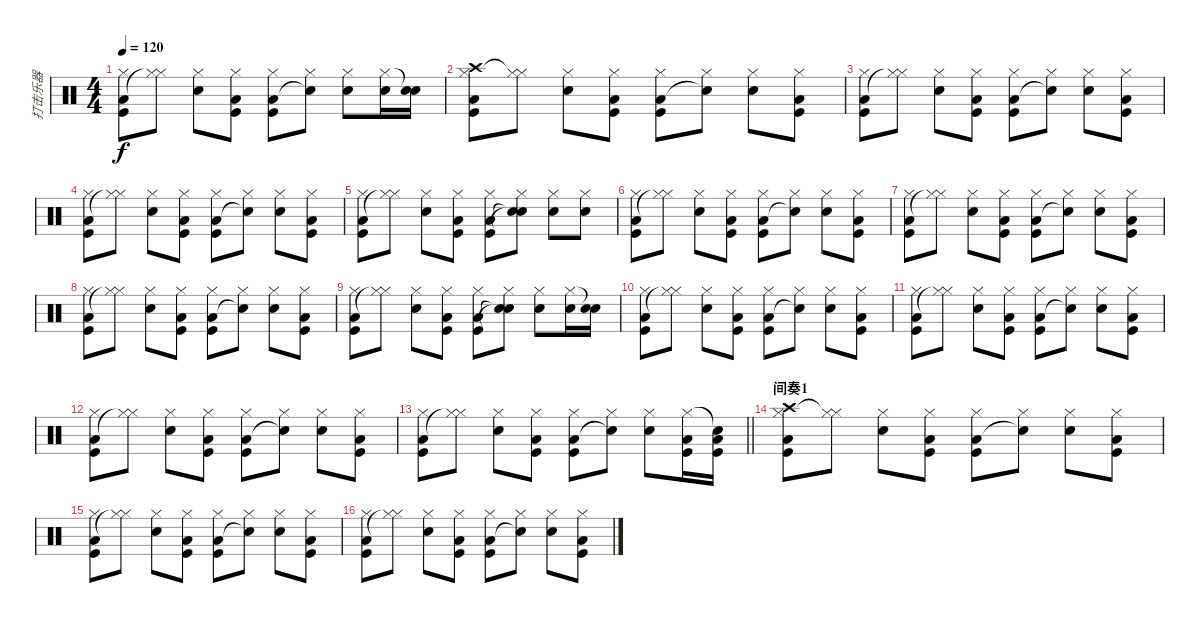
\track ("打击乐器" "打击乐器") {instrument percussion}
\staff {score}
\articulation defaults
\ts (4 4)
\tempo 120
\clef neutral
\ks c
("Hi-Hat (closed)" "Low Floor Tom (hit)" "Kick (hit)").8{dy f} ("Hi-Hat (closed)" "Hi-Hat (closed)"{t}).8 ("Hi-Hat (closed)" "Electric Snare (hit)").8 ("Hi-Hat (closed)" "Low Floor Tom (hit)" "Kick (hit)").8 ("Hi-Hat (closed)" "Low Floor Tom (hit)" "Kick (hit)").8 ("Hi-Hat (closed)" "Snare (hit)"{t}).8 ("Hi-Hat (closed)" "Electric Snare (hit)").8 ("Hi-Hat (closed)" "Electric Snare (hit)").16 ("Snare (hit)"{t} "Electric Snare (hit)").16 |
("Crash high (hit)" "Hi-Hat (closed)" "Low Floor Tom (hit)" "Kick (hit)").8 ("Hi-Hat (closed)" "Hi-Hat (closed)"{t}).8 ("Hi-Hat (closed)" "Electric Snare (hit)").8 ("Hi-Hat (closed)" "Low Floor Tom (hit)" "Kick (hit)").8 ("Hi-Hat (closed)" "Low Floor Tom (hit)" "Kick (hit)").8 ("Hi-Hat (closed)" "Snare (hit)"{t}).8 ("Hi-Hat (closed)" "Electric Snare (hit)").8 ("Hi-Hat (closed)" "Low Floor Tom (hit)" "Kick (hit)").8 |
("Hi-Hat (closed)" "Low Floor Tom (hit)" "Kick (hit)").8 ("Hi-Hat (closed)" "Hi-Hat (closed)"{t}).8 ("Hi-Hat (closed)" "Electric Snare (hit)").8 ("Hi-Hat (closed)" "Low Floor Tom (hit)" "Kick (hit)").8 ("Hi-Hat (closed)" "Low Floor Tom (hit)" "Kick (hit)").8 ("Hi-Hat (closed)" "Snare (hit)"{t}).8 ("Hi-Hat (closed)" "Electric Snare (hit)").8 ("Hi-Hat (closed)" "Low Floor Tom (hit)" "Kick (hit)").8 |
("Hi-Hat (closed)" "Low Floor Tom (hit)" "Kick (hit)").8 ("Hi-Hat (closed)" "Hi-Hat (closed)"{t}).8 ("Hi-Hat (closed)" "Electric Snare (hit)").8 ("Hi-Hat (closed)" "Low Floor Tom (hit)" "Kick (hit)").8 ("Hi-Hat (closed)" "Low Floor Tom (hit)" "Kick (hit)").8 ("Hi-Hat (closed)" "Snare (hit)"{t}).8 ("Hi-Hat (closed)" "Electric Snare (hit)").8 ("Hi-Hat (closed)" "Low Floor Tom (hit)" "Kick (hit)").8 |
("Hi-Hat (closed)" "Low Floor Tom (hit)" "Kick (hit)").8 ("Hi-Hat (closed)" "Hi-Hat (closed)"{t}).8 ("Hi-Hat (closed)" "Electric Snare (hit)").8 ("Hi-Hat (closed)" "Low Floor Tom (hit)" "Kick (hit)").8 ("Hi-Hat (closed)" "Low Floor Tom (hit)" "Kick (hit)").8 ("Hi-Hat (closed)" "Snare (hit)"{t} "Snare (hit)"{t}).8 ("Hi-Hat (closed)" "Electric Snare (hit)").8 ("Hi-Hat (closed)" "Electric Snare (hit)").8 |
("Hi-Hat (closed)" "Low Floor Tom (hit)" "Kick (hit)").8 ("Hi-Hat (closed)" "Hi-Hat (closed)"{t}).8 ("Hi-Hat (closed)" "Electric Snare (hit)").8 ("Hi-Hat (closed)" "Low Floor Tom (hit)" "Kick (hit)").8 ("Hi-Hat (closed)" "Low Floor Tom (hit)" "Kick (hit)").8 ("Hi-Hat (closed)" "Snare (hit)"{t}).8 ("Hi-Hat (closed)" "Electric Snare (hit)").8 ("Hi-Hat (closed)" "Low Floor Tom (hit)" "Kick (hit)").8 |
("Hi-Hat (closed)" "Low Floor Tom (hit)" "Kick (hit)").8 ("Hi-Hat (closed)" "Hi-Hat (closed)"{t}).8 ("Hi-Hat (closed)" "Electric Snare (hit)").8 ("Hi-Hat (closed)" "Low Floor Tom (hit)" "Kick (hit)").8 ("Hi-Hat (closed)" "Low Floor Tom (hit)" "Kick (hit)").8 ("Hi-Hat (closed)" "Snare (hit)"{t}).8 ("Hi-Hat (closed)" "Electric Snare (hit)").8 ("Hi-Hat (closed)" "Low Floor Tom (hit)" "Kick (hit)").8 |
("Hi-Hat (closed)" "Low Floor Tom (hit)" "Kick (hit)").8 ("Hi-Hat (closed)" "Hi-Hat (closed)"{t}).8 ("Hi-Hat (closed)" "Electric Snare (hit)").8 ("Hi-Hat (closed)" "Low Floor Tom (hit)" "Kick (hit)").8 ("Hi-Hat (closed)" "Low Floor Tom (hit)" "Kick (hit)").8 ("Hi-Hat (closed)" "Snare (hit)"{t}).8 ("Hi-Hat (closed)" "Electric Snare (hit)").8 ("Hi-Hat (closed)" "Low Floor Tom (hit)" "Kick (hit)").8 |
("Hi-Hat (closed)" "Low Floor Tom (hit)" "Kick (hit)").8 ("Hi-Hat (closed)" "Hi-Hat (closed)"{t}).8 ("Hi-Hat (closed)" "Electric Snare (hit)").8 ("Hi-Hat (closed)" "Low Floor Tom (hit)" "Kick (hit)").8 ("Hi-Hat (closed)" "Low Floor Tom (hit)" "Kick (hit)").8 ("Hi-Hat (closed)" "Snare (hit)"{t} "Snare (hit)"{t}).8 ("Hi-Hat (closed)" "Electric Snare (hit)").8 ("Hi-Hat (closed)" "Electric Snare (hit)").16 ("Snare (hit)"{t} "Electric Snare (hit)").16 |
("Hi-Hat (closed)" "Low Floor Tom (hit)" "Kick (hit)").8 ("Hi-Hat (closed)" "Hi-Hat (closed)"{t}).8 ("Hi-Hat (closed)" "Electric Snare (hit)").8 ("Hi-Hat (closed)" "Low Floor Tom (hit)" "Kick (hit)").8 ("Hi-Hat (closed)" "Low Floor Tom (hit)" "Kick (hit)").8 ("Hi-Hat (closed)" "Snare (hit)"{t}).8 ("Hi-Hat (closed)" "Electric Snare (hit)").8 ("Hi-Hat (closed)" "Low Floor Tom (hit)" "Kick (hit)").8 |
("Hi-Hat (closed)" "Low Floor Tom (hit)" "Kick (hit)").8 ("Hi-Hat (closed)" "Hi-Hat (closed)"{t}).8 ("Hi-Hat (closed)" "Electric Snare (hit)").8 ("Hi-Hat (closed)" "Low Floor Tom (hit)" "Kick (hit)").8 ("Hi-Hat (closed)" "Low Floor Tom (hit)" "Kick (hit)").8 ("Hi-Hat (closed)" "Snare (hit)"{t}).8 ("Hi-Hat (closed)" "Electric Snare (hit)").8 ("Hi-Hat (closed)" "Low Floor Tom (hit)" "Kick (hit)").8 |
("Hi-Hat (closed)" "Low Floor Tom (hit)" "Kick (hit)").8 ("Hi-Hat (closed)" "Hi-Hat (closed)"{t}).8 ("Hi-Hat (closed)" "Electric Snare (hit)").8 ("Hi-Hat (closed)" "Low Floor Tom (hit)" "Kick (hit)").8 ("Hi-Hat (closed)" "Low Floor Tom (hit)" "Kick (hit)").8 ("Hi-Hat (closed)" "Snare (hit)"{t}).8 ("Hi-Hat (closed)" "Electric Snare (hit)").8 ("Hi-Hat (closed)" "Low Floor Tom (hit)" "Kick (hit)").8 |
\barLineRight lightlight
("Hi-Hat (closed)" "Low Floor Tom (hit)" "Kick (hit)").8 ("Hi-Hat (closed)" "Hi-Hat (closed)"{t}).8 ("Hi-Hat (closed)" "Electric Snare (hit)").8 ("Hi-Hat (closed)" "Low Floor Tom (hit)" "Kick (hit)").8 ("Hi-Hat (closed)" "Low Floor Tom (hit)" "Kick (hit)").8 ("Hi-Hat (closed)" "Snare (hit)"{t}).8 ("Hi-Hat (closed)" "Electric Snare (hit)").8 ("Hi-Hat (closed)" "Low Floor Tom (hit)" "Kick (hit)").16 ("Snare (hit)"{t} "Low Floor Tom (hit)" "Kick (hit)").16 |
\section ("" "间奏1")
("Crash high (hit)" "Hi-Hat (closed)" "Low Floor Tom (hit)" "Kick (hit)").8 ("Hi-Hat (closed)" "Hi-Hat (closed)"{t}).8 ("Hi-Hat (closed)" "Electric Snare (hit)").8 ("Hi-Hat (closed)" "Low Floor Tom (hit)" "Kick (hit)").8 ("Hi-Hat (closed)" "Low Floor Tom (hit)" "Kick (hit)").8 ("Hi-Hat (closed)" "Snare (hit)"{t}).8 ("Hi-Hat (closed)" "Electric Snare (hit)").8 ("Hi-Hat (closed)" "Low Floor Tom (hit)" "Kick (hit)").8 |
("Hi-Hat (closed)" "Low Floor Tom (hit)" "Kick (hit)").8 ("Hi-Hat (closed)" "Hi-Hat (closed)"{t}).8 ("Hi-Hat (closed)" "Electric Snare (hit)").8 ("Hi-Hat (closed)" "Low Floor Tom (hit)" "Kick (hit)").8 ("Hi-Hat (closed)" "Low Floor Tom (hit)" "Kick (hit)").8 ("Hi-Hat (closed)" "Snare (hit)"{t}).8 ("Hi-Hat (closed)" "Electric Snare (hit)").8 ("Hi-Hat (closed)" "Low Floor Tom (hit)" "Kick (hit)").8 |
("Hi-Hat (closed)" "Low Floor Tom (hit)" "Kick (hit)").8 ("Hi-Hat (closed)" "Hi-Hat (closed)"{t}).8 ("Hi-Hat (closed)" "Electric Snare (hit)").8 ("Hi-Hat (closed)" "Low Floor Tom (hit)" "Kick (hit)").8 ("Hi-Hat (closed)" "Low Floor Tom (hit)" "Kick (hit)").8 ("Hi-Hat (closed)" "Snare (hit)"{t}).8 ("Hi-Hat (closed)" "Electric Snare (hit)").8 ("Hi-Hat (closed)" "Low Floor Tom (hit)" "Kick (hit)").8
